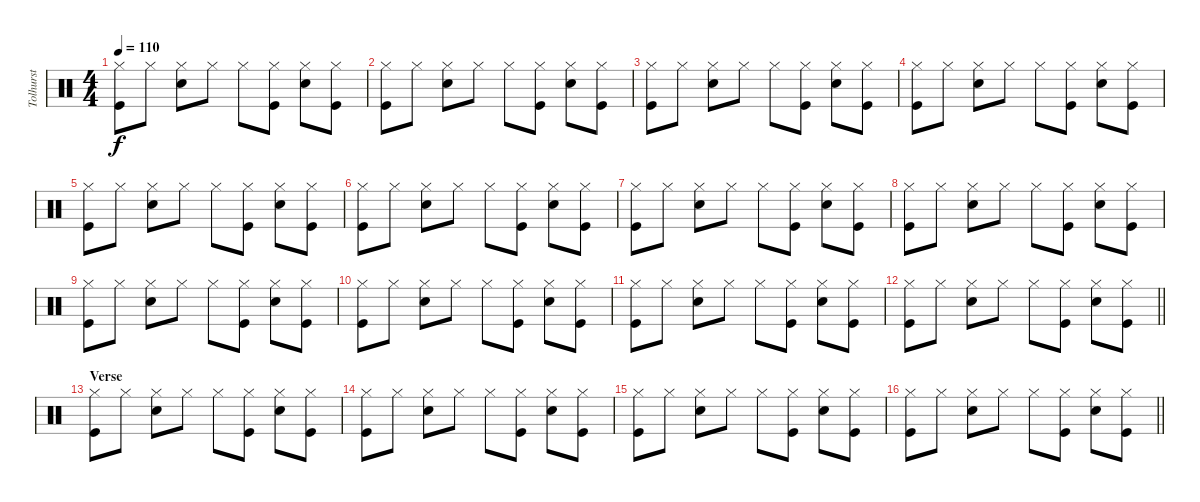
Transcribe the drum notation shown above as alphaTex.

\track ("Tolhurst" "Tolhurst") {instrument percussion}
\staff {score}
\articulation defaults
\ts (4 4)
\tempo 110
\clef neutral
\ks c
("Hi-Hat (closed)" "Kick (hit)").8{dy f} "Hi-Hat (closed)".8 ("Hi-Hat (closed)" "Electric Snare (hit)").8 "Hi-Hat (closed)".8 "Hi-Hat (closed)".8 ("Hi-Hat (closed)" "Kick (hit)").8 ("Hi-Hat (closed)" "Electric Snare (hit)").8 ("Hi-Hat (closed)" "Kick (hit)").8 |
("Hi-Hat (closed)" "Kick (hit)").8 "Hi-Hat (closed)".8 ("Hi-Hat (closed)" "Electric Snare (hit)").8 "Hi-Hat (closed)".8 "Hi-Hat (closed)".8 ("Hi-Hat (closed)" "Kick (hit)").8 ("Hi-Hat (closed)" "Electric Snare (hit)").8 ("Hi-Hat (closed)" "Kick (hit)").8 |
("Hi-Hat (closed)" "Kick (hit)").8 "Hi-Hat (closed)".8 ("Hi-Hat (closed)" "Electric Snare (hit)").8 "Hi-Hat (closed)".8 "Hi-Hat (closed)".8 ("Hi-Hat (closed)" "Kick (hit)").8 ("Hi-Hat (closed)" "Electric Snare (hit)").8 ("Hi-Hat (closed)" "Kick (hit)").8 |
("Hi-Hat (closed)" "Kick (hit)").8 "Hi-Hat (closed)".8 ("Hi-Hat (closed)" "Electric Snare (hit)").8 "Hi-Hat (closed)".8 "Hi-Hat (closed)".8 ("Hi-Hat (closed)" "Kick (hit)").8 ("Hi-Hat (closed)" "Electric Snare (hit)").8 ("Hi-Hat (closed)" "Kick (hit)").8 |
("Hi-Hat (closed)" "Kick (hit)").8 "Hi-Hat (closed)".8 ("Hi-Hat (closed)" "Electric Snare (hit)").8 "Hi-Hat (closed)".8 "Hi-Hat (closed)".8 ("Hi-Hat (closed)" "Kick (hit)").8 ("Hi-Hat (closed)" "Electric Snare (hit)").8 ("Hi-Hat (closed)" "Kick (hit)").8 |
("Hi-Hat (closed)" "Kick (hit)").8 "Hi-Hat (closed)".8 ("Hi-Hat (closed)" "Electric Snare (hit)").8 "Hi-Hat (closed)".8 "Hi-Hat (closed)".8 ("Hi-Hat (closed)" "Kick (hit)").8 ("Hi-Hat (closed)" "Electric Snare (hit)").8 ("Hi-Hat (closed)" "Kick (hit)").8 |
("Hi-Hat (closed)" "Kick (hit)").8 "Hi-Hat (closed)".8 ("Hi-Hat (closed)" "Electric Snare (hit)").8 "Hi-Hat (closed)".8 "Hi-Hat (closed)".8 ("Hi-Hat (closed)" "Kick (hit)").8 ("Hi-Hat (closed)" "Electric Snare (hit)").8 ("Hi-Hat (closed)" "Kick (hit)").8 |
("Hi-Hat (closed)" "Kick (hit)").8 "Hi-Hat (closed)".8 ("Hi-Hat (closed)" "Electric Snare (hit)").8 "Hi-Hat (closed)".8 "Hi-Hat (closed)".8 ("Hi-Hat (closed)" "Kick (hit)").8 ("Hi-Hat (closed)" "Electric Snare (hit)").8 ("Hi-Hat (closed)" "Kick (hit)").8 |
("Hi-Hat (closed)" "Kick (hit)").8 "Hi-Hat (closed)".8 ("Hi-Hat (closed)" "Electric Snare (hit)").8 "Hi-Hat (closed)".8 "Hi-Hat (closed)".8 ("Hi-Hat (closed)" "Kick (hit)").8 ("Hi-Hat (closed)" "Electric Snare (hit)").8 ("Hi-Hat (closed)" "Kick (hit)").8 |
("Hi-Hat (closed)" "Kick (hit)").8 "Hi-Hat (closed)".8 ("Hi-Hat (closed)" "Electric Snare (hit)").8 "Hi-Hat (closed)".8 "Hi-Hat (closed)".8 ("Hi-Hat (closed)" "Kick (hit)").8 ("Hi-Hat (closed)" "Electric Snare (hit)").8 ("Hi-Hat (closed)" "Kick (hit)").8 |
("Hi-Hat (closed)" "Kick (hit)").8 "Hi-Hat (closed)".8 ("Hi-Hat (closed)" "Electric Snare (hit)").8 "Hi-Hat (closed)".8 "Hi-Hat (closed)".8 ("Hi-Hat (closed)" "Kick (hit)").8 ("Hi-Hat (closed)" "Electric Snare (hit)").8 ("Hi-Hat (closed)" "Kick (hit)").8 |
\barLineRight lightlight
("Hi-Hat (closed)" "Kick (hit)").8 "Hi-Hat (closed)".8 ("Hi-Hat (closed)" "Electric Snare (hit)").8 "Hi-Hat (closed)".8 "Hi-Hat (closed)".8 ("Hi-Hat (closed)" "Kick (hit)").8 ("Hi-Hat (closed)" "Electric Snare (hit)").8 ("Hi-Hat (closed)" "Kick (hit)").8 |
\section ("" "Verse")
("Hi-Hat (closed)" "Kick (hit)").8 "Hi-Hat (closed)".8 ("Hi-Hat (closed)" "Electric Snare (hit)").8 "Hi-Hat (closed)".8 "Hi-Hat (closed)".8 ("Hi-Hat (closed)" "Kick (hit)").8 ("Hi-Hat (closed)" "Electric Snare (hit)").8 ("Hi-Hat (closed)" "Kick (hit)").8 |
("Hi-Hat (closed)" "Kick (hit)").8 "Hi-Hat (closed)".8 ("Hi-Hat (closed)" "Electric Snare (hit)").8 "Hi-Hat (closed)".8 "Hi-Hat (closed)".8 ("Hi-Hat (closed)" "Kick (hit)").8 ("Hi-Hat (closed)" "Electric Snare (hit)").8 ("Hi-Hat (closed)" "Kick (hit)").8 |
("Hi-Hat (closed)" "Kick (hit)").8 "Hi-Hat (closed)".8 ("Hi-Hat (closed)" "Electric Snare (hit)").8 "Hi-Hat (closed)".8 "Hi-Hat (closed)".8 ("Hi-Hat (closed)" "Kick (hit)").8 ("Hi-Hat (closed)" "Electric Snare (hit)").8 ("Hi-Hat (closed)" "Kick (hit)").8 |
\barLineRight lightlight
("Hi-Hat (closed)" "Kick (hit)").8 "Hi-Hat (closed)".8 ("Hi-Hat (closed)" "Electric Snare (hit)").8 "Hi-Hat (closed)".8 "Hi-Hat (closed)".8 ("Hi-Hat (closed)" "Kick (hit)").8 ("Hi-Hat (closed)" "Electric Snare (hit)").8 ("Hi-Hat (closed)" "Kick (hit)").8
